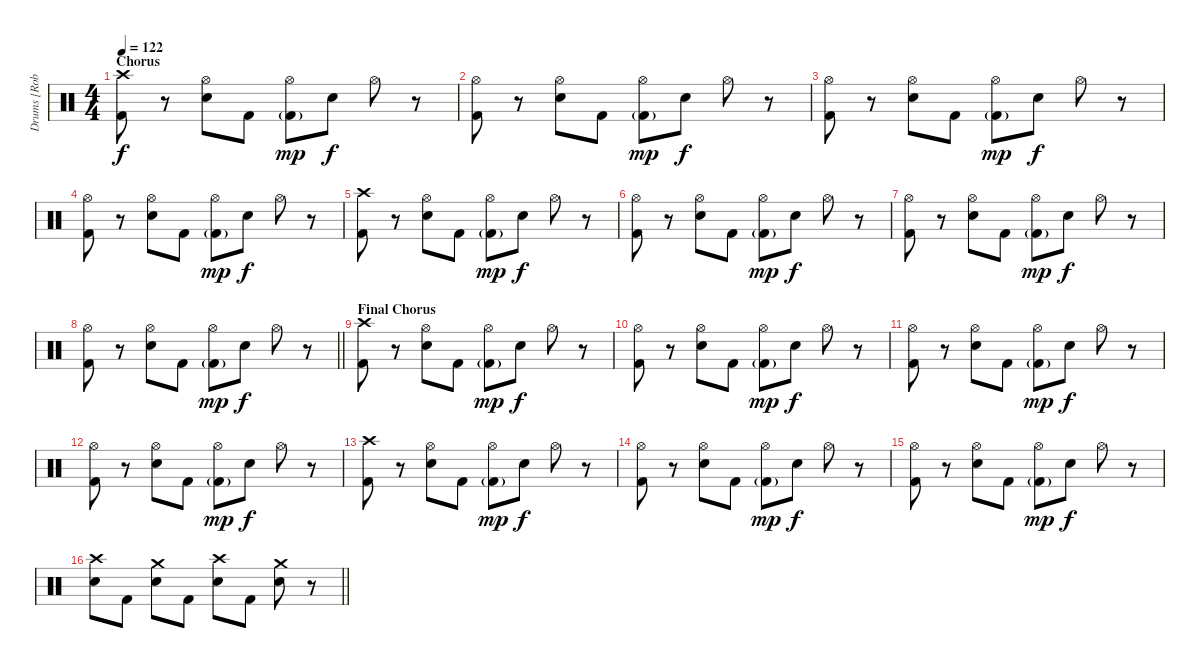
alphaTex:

\track ("Drums [Rob Bourdon]" "Drums [Rob") {solo instrument percussion}
\staff {score}
\articulation defaults
\ts (4 4)
\section ("" "Chorus")
\tempo 122
\clef neutral
\ks c
("Crash high (hit)" "Kick (hit) 2").8{dy f} r.8 ("Hi-Hat (open)" "Electric Snare (hit)").8 "Kick (hit) 2".8 ("Hi-Hat (open)" "Kick (hit) 2"{g}).8{dy mp} "Electric Snare (hit)".8{dy f} "Hi-Hat (open)".8 r.8 |
("Hi-Hat (open)" "Kick (hit) 2").8 r.8 ("Hi-Hat (open)" "Electric Snare (hit)").8 "Kick (hit) 2".8 ("Hi-Hat (open)" "Kick (hit) 2"{g}).8{dy mp} "Electric Snare (hit)".8{dy f} "Hi-Hat (open)".8 r.8 |
("Hi-Hat (open)" "Kick (hit) 2").8 r.8 ("Hi-Hat (open)" "Electric Snare (hit)").8 "Kick (hit) 2".8 ("Hi-Hat (open)" "Kick (hit) 2"{g}).8{dy mp} "Electric Snare (hit)".8{dy f} "Hi-Hat (open)".8 r.8 |
("Hi-Hat (open)" "Kick (hit) 2").8 r.8 ("Hi-Hat (open)" "Electric Snare (hit)").8 "Kick (hit) 2".8 ("Hi-Hat (open)" "Kick (hit) 2"{g}).8{dy mp} "Electric Snare (hit)".8{dy f} "Hi-Hat (open)".8 r.8 |
("Crash high (hit)" "Kick (hit) 2").8 r.8 ("Hi-Hat (open)" "Electric Snare (hit)").8 "Kick (hit) 2".8 ("Hi-Hat (open)" "Kick (hit) 2"{g}).8{dy mp} "Electric Snare (hit)".8{dy f} "Hi-Hat (open)".8 r.8 |
("Hi-Hat (open)" "Kick (hit) 2").8 r.8 ("Hi-Hat (open)" "Electric Snare (hit)").8 "Kick (hit) 2".8 ("Hi-Hat (open)" "Kick (hit) 2"{g}).8{dy mp} "Electric Snare (hit)".8{dy f} "Hi-Hat (open)".8 r.8 |
("Hi-Hat (open)" "Kick (hit) 2").8 r.8 ("Hi-Hat (open)" "Electric Snare (hit)").8 "Kick (hit) 2".8 ("Hi-Hat (open)" "Kick (hit) 2"{g}).8{dy mp} "Electric Snare (hit)".8{dy f} "Hi-Hat (open)".8 r.8 |
\barLineRight lightlight
("Hi-Hat (open)" "Kick (hit) 2").8 r.8 ("Hi-Hat (open)" "Electric Snare (hit)").8 "Kick (hit) 2".8 ("Hi-Hat (open)" "Kick (hit) 2"{g}).8{dy mp} "Electric Snare (hit)".8{dy f} "Hi-Hat (open)".8 r.8 |
\section ("" "Final Chorus")
("Crash high (hit)" "Kick (hit) 2").8 r.8 ("Hi-Hat (open)" "Electric Snare (hit)").8 "Kick (hit) 2".8 ("Hi-Hat (open)" "Kick (hit) 2"{g}).8{dy mp} "Electric Snare (hit)".8{dy f} "Hi-Hat (open)".8 r.8 |
("Hi-Hat (open)" "Kick (hit) 2").8 r.8 ("Hi-Hat (open)" "Electric Snare (hit)").8 "Kick (hit) 2".8 ("Hi-Hat (open)" "Kick (hit) 2"{g}).8{dy mp} "Electric Snare (hit)".8{dy f} "Hi-Hat (open)".8 r.8 |
("Hi-Hat (open)" "Kick (hit) 2").8 r.8 ("Hi-Hat (open)" "Electric Snare (hit)").8 "Kick (hit) 2".8 ("Hi-Hat (open)" "Kick (hit) 2"{g}).8{dy mp} "Electric Snare (hit)".8{dy f} "Hi-Hat (open)".8 r.8 |
("Hi-Hat (open)" "Kick (hit) 2").8 r.8 ("Hi-Hat (open)" "Electric Snare (hit)").8 "Kick (hit) 2".8 ("Hi-Hat (open)" "Kick (hit) 2"{g}).8{dy mp} "Electric Snare (hit)".8{dy f} "Hi-Hat (open)".8 r.8 |
("Crash high (hit)" "Kick (hit) 2").8 r.8 ("Hi-Hat (open)" "Electric Snare (hit)").8 "Kick (hit) 2".8 ("Hi-Hat (open)" "Kick (hit) 2"{g}).8{dy mp} "Electric Snare (hit)".8{dy f} "Hi-Hat (open)".8 r.8 |
("Hi-Hat (open)" "Kick (hit) 2").8 r.8 ("Hi-Hat (open)" "Electric Snare (hit)").8 "Kick (hit) 2".8 ("Hi-Hat (open)" "Kick (hit) 2"{g}).8{dy mp} "Electric Snare (hit)".8{dy f} "Hi-Hat (open)".8 r.8 |
("Hi-Hat (open)" "Kick (hit) 2").8 r.8 ("Hi-Hat (open)" "Electric Snare (hit)").8 "Kick (hit) 2".8 ("Hi-Hat (open)" "Kick (hit) 2"{g}).8{dy mp} "Electric Snare (hit)".8{dy f} "Hi-Hat (open)".8 r.8 |
\barLineRight lightlight
("Crash high (hit)" "Electric Snare (hit)").8 "Kick (hit) 2".8 ("Crash medium (hit)" "Electric Snare (hit)").8 "Kick (hit) 2".8 ("Crash high (hit)" "Electric Snare (hit)").8 "Kick (hit) 2".8 ("Crash medium (hit)" "Electric Snare (hit)").8 r.8
